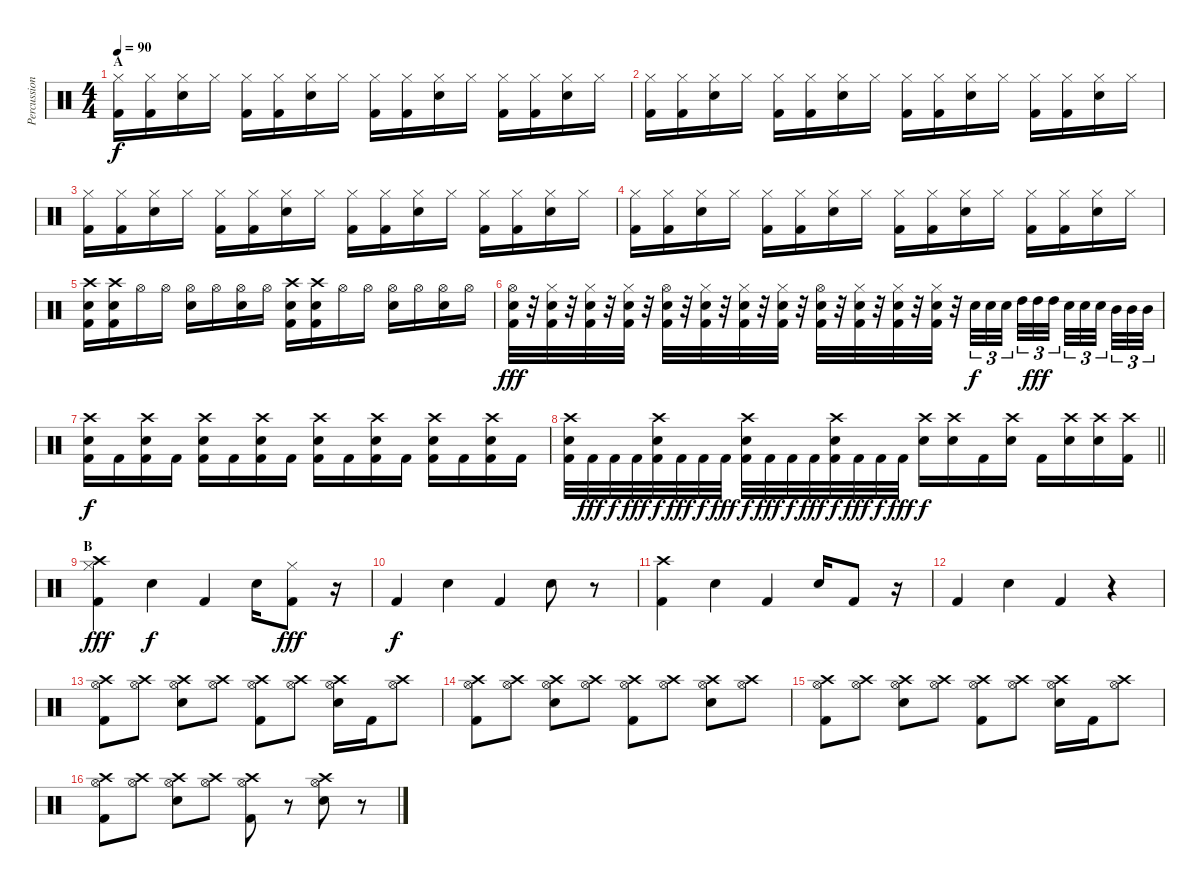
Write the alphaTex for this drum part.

\track ("Percussion" "Percussion") {instrument percussion}
\staff {score}
\articulation defaults
\ts (4 4)
\section ("" "A")
\tempo 90
\clef neutral
\ks c
("Hi-Hat (closed)" "Kick (hit) 2").16{dy f} ("Hi-Hat (closed)" "Kick (hit) 2").16 ("Hi-Hat (closed)" "Snare (hit) 2").16 "Hi-Hat (closed)".16 ("Hi-Hat (closed)" "Kick (hit) 2").16 ("Hi-Hat (closed)" "Kick (hit) 2").16 ("Hi-Hat (closed)" "Snare (hit) 2").16 "Hi-Hat (closed)".16 ("Hi-Hat (closed)" "Kick (hit) 2").16 ("Hi-Hat (closed)" "Kick (hit) 2").16 ("Hi-Hat (closed)" "Snare (hit) 2").16 "Hi-Hat (closed)".16 ("Hi-Hat (closed)" "Kick (hit) 2").16 ("Hi-Hat (closed)" "Kick (hit) 2").16 ("Hi-Hat (closed)" "Snare (hit) 2").16 "Hi-Hat (closed)".16 |
("Hi-Hat (closed)" "Kick (hit) 2").16 ("Hi-Hat (closed)" "Kick (hit) 2").16 ("Hi-Hat (closed)" "Snare (hit) 2").16 "Hi-Hat (closed)".16 ("Hi-Hat (closed)" "Kick (hit) 2").16 ("Hi-Hat (closed)" "Kick (hit) 2").16 ("Hi-Hat (closed)" "Snare (hit) 2").16 "Hi-Hat (closed)".16 ("Hi-Hat (closed)" "Kick (hit) 2").16 ("Hi-Hat (closed)" "Kick (hit) 2").16 ("Hi-Hat (closed)" "Snare (hit) 2").16 "Hi-Hat (closed)".16 ("Hi-Hat (closed)" "Kick (hit) 2").16 ("Hi-Hat (closed)" "Kick (hit) 2").16 ("Hi-Hat (closed)" "Snare (hit) 2").16 "Hi-Hat (closed)".16 |
("Hi-Hat (closed)" "Kick (hit) 2").16 ("Hi-Hat (closed)" "Kick (hit) 2").16 ("Hi-Hat (closed)" "Snare (hit) 2").16 "Hi-Hat (closed)".16 ("Hi-Hat (closed)" "Kick (hit) 2").16 ("Hi-Hat (closed)" "Kick (hit) 2").16 ("Hi-Hat (closed)" "Snare (hit) 2").16 "Hi-Hat (closed)".16 ("Hi-Hat (closed)" "Kick (hit) 2").16 ("Hi-Hat (closed)" "Kick (hit) 2").16 ("Hi-Hat (closed)" "Snare (hit) 2").16 "Hi-Hat (closed)".16 ("Hi-Hat (closed)" "Kick (hit) 2").16 ("Hi-Hat (closed)" "Kick (hit) 2").16 ("Hi-Hat (closed)" "Snare (hit) 2").16 "Hi-Hat (closed)".16 |
("Hi-Hat (closed)" "Kick (hit) 2").16 ("Hi-Hat (closed)" "Kick (hit) 2").16 ("Hi-Hat (closed)" "Snare (hit) 2").16 "Hi-Hat (closed)".16 ("Hi-Hat (closed)" "Kick (hit) 2").16 ("Hi-Hat (closed)" "Kick (hit) 2").16 ("Hi-Hat (closed)" "Snare (hit) 2").16 "Hi-Hat (closed)".16 ("Hi-Hat (closed)" "Kick (hit) 2").16 ("Hi-Hat (closed)" "Kick (hit) 2").16 ("Hi-Hat (closed)" "Snare (hit) 2").16 "Hi-Hat (closed)".16 ("Hi-Hat (closed)" "Kick (hit) 2").16 ("Hi-Hat (closed)" "Kick (hit) 2").16 ("Hi-Hat (closed)" "Snare (hit) 2").16 "Hi-Hat (closed)".16 |
("Crash high (hit)" "Snare (hit) 2" "Kick (hit) 2").16 ("Crash high (hit)" "Snare (hit) 2" "Kick (hit) 2").16 "Hi-Hat (open)".16 "Hi-Hat (open)".16 ("Hi-Hat (open)" "Snare (hit) 2").16 "Hi-Hat (open)".16 ("Hi-Hat (open)" "Snare (hit) 2").16 "Hi-Hat (open)".16 ("Crash high (hit)" "Snare (hit) 2" "Kick (hit) 2").16 ("Crash high (hit)" "Snare (hit) 2" "Kick (hit) 2").16 "Hi-Hat (open)".16 "Hi-Hat (open)".16 ("Hi-Hat (open)" "Snare (hit) 2").16 "Hi-Hat (open)".16 ("Hi-Hat (open)" "Snare (hit) 2").16 "Hi-Hat (open)".16 |
("Hi-Hat (open)" "Snare (hit) 2" "Kick (hit) 2").32{dy fff} r.32 ("Hi-Hat (closed)" "Snare (hit) 2" "Kick (hit) 2").32 r.32 ("Hi-Hat (closed)" "Snare (hit) 2" "Kick (hit) 2").32 r.32 ("Hi-Hat (closed)" "Snare (hit) 2" "Kick (hit) 2").32 r.32 ("Hi-Hat (open)" "Snare (hit) 2" "Kick (hit) 2").32 r.32 ("Hi-Hat (closed)" "Snare (hit) 2" "Kick (hit) 2").32 r.32 ("Hi-Hat (closed)" "Snare (hit) 2" "Kick (hit) 2").32 r.32 ("Hi-Hat (closed)" "Snare (hit) 2" "Kick (hit) 2").32 r.32 ("Hi-Hat (open)" "Snare (hit) 2" "Kick (hit) 2").32 r.32 ("Hi-Hat (closed)" "Snare (hit) 2" "Kick (hit) 2").32 r.32 ("Hi-Hat (closed)" "Snare (hit) 2" "Kick (hit) 2").32 r.32 ("Hi-Hat (closed)" "Snare (hit) 2" "Kick (hit) 2").32 r.32 "Snare (hit) 2".32{tu (3 2) dy f} "Snare (hit) 2".32{tu (3 2)} "Snare (hit) 2".32{tu (3 2) beam splitsecondary} "High Tom (hit)".32{tu (3 2)} "High Tom (hit)".32{tu (3 2) dy fff} "High Tom (hit)".32{tu (3 2) beam splitsecondary} "Snare (hit) 2".32{tu (3 2)} "Snare (hit) 2".32{tu (3 2)} "Snare (hit) 2".32{tu (3 2) beam splitsecondary} "Mid Tom (hit)".32{tu (3 2)} "Mid Tom (hit)".32{tu (3 2)} "Mid Tom (hit)".32{tu (3 2)} |
("Crash high (hit)" "Snare (hit) 2" "Kick (hit) 2").16{dy f} "Kick (hit) 2".16 ("Crash high (hit)" "Snare (hit) 2" "Kick (hit) 2").16 "Kick (hit) 2".16 ("Crash high (hit)" "Snare (hit) 2" "Kick (hit) 2").16 "Kick (hit) 2".16 ("Crash high (hit)" "Snare (hit) 2" "Kick (hit) 2").16 "Kick (hit) 2".16 ("Crash high (hit)" "Snare (hit) 2" "Kick (hit) 2").16 "Kick (hit) 2".16 ("Crash high (hit)" "Snare (hit) 2" "Kick (hit) 2").16 "Kick (hit) 2".16 ("Crash high (hit)" "Snare (hit) 2" "Kick (hit) 2").16 "Kick (hit) 2".16 ("Crash high (hit)" "Snare (hit) 2" "Kick (hit) 2").16 "Kick (hit) 2".16 |
\barLineRight lightlight
("Crash high (hit)" "Snare (hit) 2" "Kick (hit) 2").32 "Kick (hit) 2".32{dy fff} "Kick (hit) 2".32{dy f} "Kick (hit) 2".32{dy fff} ("Crash high (hit)" "Snare (hit) 2" "Kick (hit) 2").32{dy f} "Kick (hit) 2".32{dy fff} "Kick (hit) 2".32{dy f} "Kick (hit) 2".32{dy fff} ("Crash high (hit)" "Snare (hit) 2" "Kick (hit) 2").32{dy f} "Kick (hit) 2".32{dy fff} "Kick (hit) 2".32{dy f} "Kick (hit) 2".32{dy fff} ("Crash high (hit)" "Snare (hit) 2" "Kick (hit) 2").32{dy f} "Kick (hit) 2".32{dy fff} "Kick (hit) 2".32{dy f} "Kick (hit) 2".32{dy fff} ("Crash high (hit)" "Snare (hit) 2").16{dy f} ("Crash high (hit)" "Snare (hit) 2").16 "Kick (hit) 2".16 ("Crash high (hit)" "Snare (hit) 2").16 "Kick (hit) 2".16 ("Crash high (hit)" "Snare (hit) 2").16 ("Crash high (hit)" "Snare (hit) 2").16 ("Crash high (hit)" "Kick (hit) 2").16 |
\section ("" "B")
("Hi-Hat (closed)" "Crash high (hit)" "Kick (hit) 2").4{dy fff} "Snare (hit) 2".4{dy f} "Kick (hit) 2".4 "Snare (hit) 2".16 ("Hi-Hat (closed)" "Kick (hit) 2").8{dy fff} r.16 |
"Kick (hit) 2".4{dy f} "Snare (hit) 2".4 "Kick (hit) 2".4 "Snare (hit) 2".8 r.8 |
("Crash high (hit)" "Kick (hit) 2").4 "Snare (hit) 2".4 "Kick (hit) 2".4 "Snare (hit) 2".16 "Kick (hit) 2".8 r.16 |
"Kick (hit) 2".4 "Snare (hit) 2".4 "Kick (hit) 2".4 r.4 |
("Hi-Hat (open)" "Crash high (hit)" "Kick (hit) 2").8 ("Hi-Hat (open)" "Crash high (hit)").8 ("Hi-Hat (open)" "Crash high (hit)" "Snare (hit) 2").8 ("Hi-Hat (open)" "Crash high (hit)").8 ("Hi-Hat (open)" "Crash high (hit)" "Kick (hit) 2").8 ("Hi-Hat (open)" "Crash high (hit)").8 ("Hi-Hat (open)" "Crash high (hit)" "Snare (hit) 2").16 "Kick (hit) 2".16 ("Hi-Hat (open)" "Crash high (hit)").8 |
("Hi-Hat (open)" "Crash high (hit)" "Kick (hit) 2").8 ("Hi-Hat (open)" "Crash high (hit)").8 ("Hi-Hat (open)" "Crash high (hit)" "Snare (hit) 2").8 ("Hi-Hat (open)" "Crash high (hit)").8 ("Hi-Hat (open)" "Crash high (hit)" "Kick (hit) 2").8 ("Hi-Hat (open)" "Crash high (hit)").8 ("Hi-Hat (open)" "Crash high (hit)" "Snare (hit) 2").8 ("Hi-Hat (open)" "Crash high (hit)").8 |
("Hi-Hat (open)" "Crash high (hit)" "Kick (hit) 2").8 ("Hi-Hat (open)" "Crash high (hit)").8 ("Hi-Hat (open)" "Crash high (hit)" "Snare (hit) 2").8 ("Hi-Hat (open)" "Crash high (hit)").8 ("Hi-Hat (open)" "Crash high (hit)" "Kick (hit) 2").8 ("Hi-Hat (open)" "Crash high (hit)").8 ("Hi-Hat (open)" "Crash high (hit)" "Snare (hit) 2").16 "Kick (hit) 2".16 ("Hi-Hat (open)" "Crash high (hit)").8 |
("Hi-Hat (open)" "Crash high (hit)" "Kick (hit) 2").8 ("Hi-Hat (open)" "Crash high (hit)").8 ("Hi-Hat (open)" "Crash high (hit)" "Snare (hit) 2").8 ("Hi-Hat (open)" "Crash high (hit)").8 ("Hi-Hat (open)" "Crash high (hit)" "Kick (hit) 2").8 r.8 ("Hi-Hat (open)" "Crash high (hit)" "Snare (hit) 2").8 r.8
